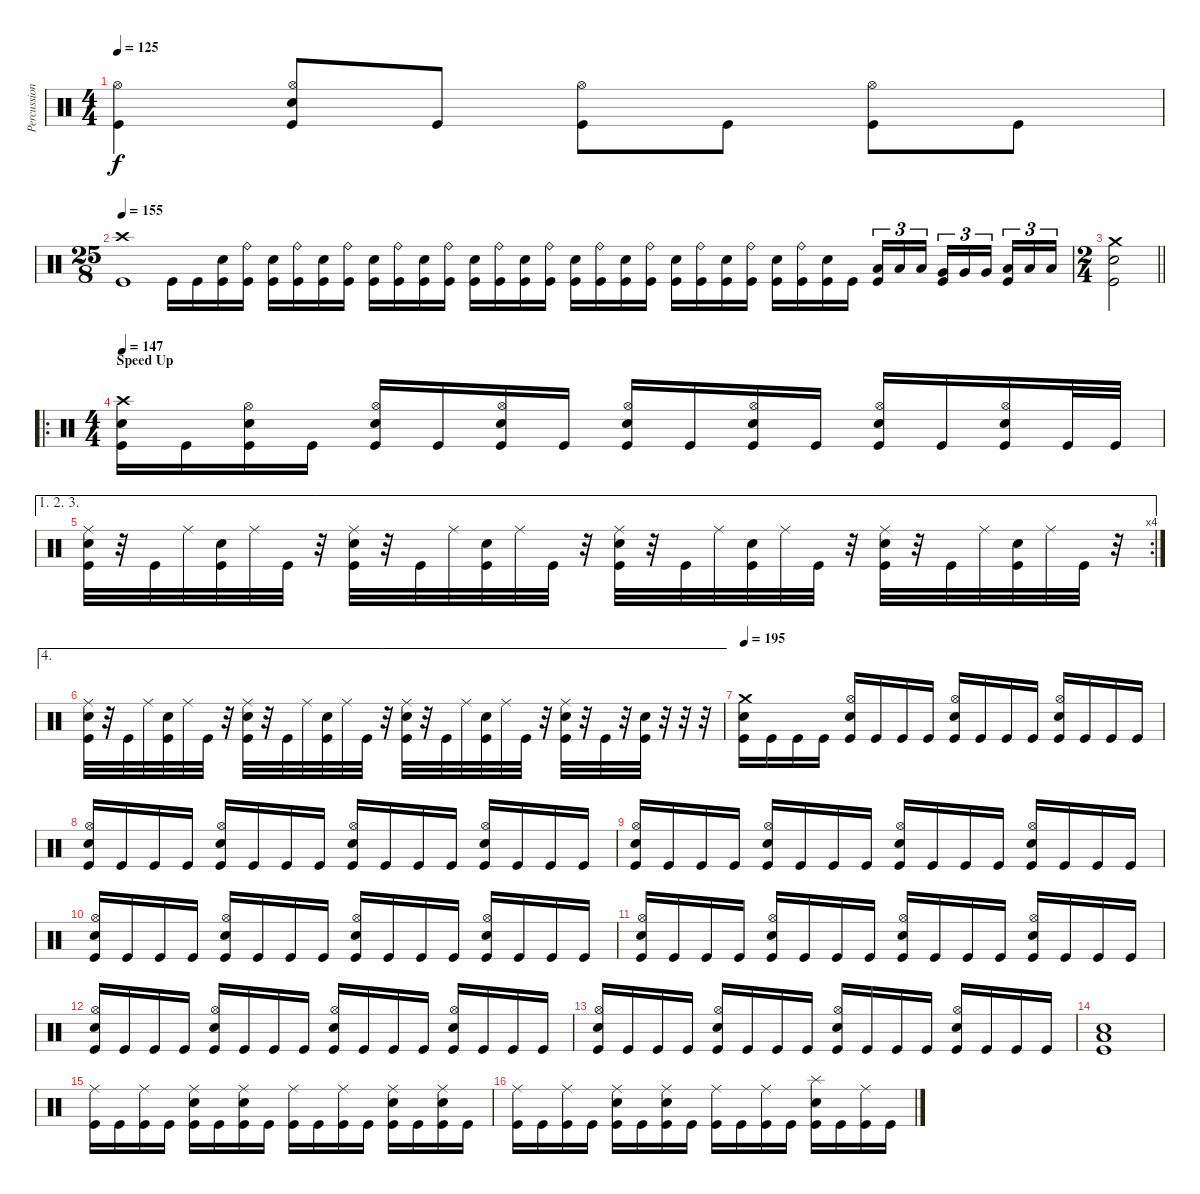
\track ("Percussion" "Percussion") {instrument percussion}
\staff {score}
\articulation defaults
\ts (4 4)
\tempo 125
\clef neutral
\ks c
("Kick (hit)" "Hi-Hat (open)").4{dy f} ("Kick (hit)" "Snare (hit) 2" "Hi-Hat (open)").8 "Kick (hit)".8 ("Kick (hit)" "Hi-Hat (open)").8 "Kick (hit)".8 ("Kick (hit)" "Hi-Hat (open)").8 "Kick (hit)".8 |
\ts (25 8)
\tempo 155
("Kick (hit)" "Crash high (hit)").1 "Kick (hit)".16 "Kick (hit)".16 ("Kick (hit)" "Snare (hit) 2").16 ("Kick (hit)" "Ride (bell)").16 ("Kick (hit)" "Snare (hit) 2").16 ("Kick (hit)" "Ride (bell)").16 ("Kick (hit)" "Snare (hit) 2").16 ("Kick (hit)" "Ride (bell)").16 ("Kick (hit)" "Snare (hit) 2").16 ("Kick (hit)" "Ride (bell)").16 ("Kick (hit)" "Snare (hit) 2").16 ("Kick (hit)" "Ride (bell)").16 ("Kick (hit)" "Snare (hit) 2").16 ("Kick (hit)" "Ride (bell)").16 ("Kick (hit)" "Snare (hit) 2").16 ("Kick (hit)" "Ride (bell)").16 ("Kick (hit)" "Snare (hit) 2").16 ("Kick (hit)" "Ride (bell)").16 ("Kick (hit)" "Snare (hit) 2").16 ("Kick (hit)" "Ride (bell)").16 ("Kick (hit)" "Snare (hit) 2").16 ("Kick (hit)" "Ride (bell)").16 ("Kick (hit)" "Snare (hit) 2").16 ("Kick (hit)" "Ride (bell)").16 ("Kick (hit)" "Snare (hit) 2").16 ("Kick (hit)" "Ride (bell)").16 ("Kick (hit)" "Snare (hit) 2").16 "Kick (hit)".16 ("Kick (hit)" "Low Tom (hit)").16{tu (3 2)} "Low Tom (hit)".16{tu (3 2)} "Low Tom (hit)".16{tu (3 2)} ("Kick (hit)" "Very Low Tom (hit)").16{tu (3 2)} "Very Low Tom (hit)".16{tu (3 2)} "Very Low Tom (hit)".16{tu (3 2)} ("Kick (hit)" "Low Floor Tom (hit)").16{tu (3 2)} "Low Floor Tom (hit)".16{tu (3 2)} "Low Floor Tom (hit)".16{tu (3 2)} |
\ts (2 4)
\barLineRight lightlight
("Kick (hit)" "Snare (hit) 2" "Crash medium (hit)").2 |
\ro
\ts (4 4)
\section ("" "Speed Up")
\tempo 147
("Kick (hit)" "Snare (hit) 2" "Crash high (hit)").16 "Kick (hit)".16 ("Kick (hit)" "Snare (hit) 2" "Hi-Hat (open)").16 "Kick (hit)".16 ("Kick (hit)" "Snare (hit) 2" "Hi-Hat (open)").16 "Kick (hit)".16 ("Kick (hit)" "Snare (hit) 2" "Hi-Hat (open)").16 "Kick (hit)".16 ("Kick (hit)" "Snare (hit) 2" "Hi-Hat (open)").16 "Kick (hit)".16 ("Kick (hit)" "Snare (hit) 2" "Hi-Hat (open)").16 "Kick (hit)".16 ("Kick (hit)" "Snare (hit) 2" "Hi-Hat (open)").16 "Kick (hit)".16 ("Kick (hit)" "Snare (hit) 2" "Hi-Hat (open)").16 "Kick (hit)".32 "Kick (hit)".32 |
\ae (1 2 3)
\rc 4
("Kick (hit)" "Snare (hit) 2" "Ride (middle)").32 r.32 "Kick (hit)".32 "Ride (middle)".32 ("Kick (hit)" "Snare (hit) 2").32 "Ride (middle)".32 "Kick (hit)".32 r.32 ("Kick (hit)" "Snare (hit) 2" "Ride (middle)").32 r.32 "Kick (hit)".32 "Ride (middle)".32 ("Kick (hit)" "Snare (hit) 2").32 "Ride (middle)".32 "Kick (hit)".32 r.32 ("Kick (hit)" "Snare (hit) 2" "Ride (middle)").32 r.32 "Kick (hit)".32 "Ride (middle)".32 ("Kick (hit)" "Snare (hit) 2").32 "Ride (middle)".32 "Kick (hit)".32 r.32 ("Kick (hit)" "Snare (hit) 2" "Ride (middle)").32 r.32 "Kick (hit)".32 "Ride (middle)".32 ("Kick (hit)" "Snare (hit) 2").32 "Ride (middle)".32 "Kick (hit)".32 r.32 |
\ae 4
("Kick (hit)" "Snare (hit) 2" "Ride (middle)").32 r.32 "Kick (hit)".32 "Ride (middle)".32 ("Kick (hit)" "Snare (hit) 2").32 "Ride (middle)".32 "Kick (hit)".32 r.32 ("Kick (hit)" "Snare (hit) 2" "Ride (middle)").32 r.32 "Kick (hit)".32 "Ride (middle)".32 ("Kick (hit)" "Snare (hit) 2").32 "Ride (middle)".32 "Kick (hit)".32 r.32 ("Kick (hit)" "Snare (hit) 2" "Ride (middle)").32 r.32 "Kick (hit)".32 "Ride (middle)".32 ("Kick (hit)" "Snare (hit) 2").32 "Ride (middle)".32 "Kick (hit)".32 r.32 ("Kick (hit)" "Snare (hit) 2" "Ride (middle)").32 r.32 "Kick (hit)".32 r.32 ("Kick (hit)" "Snare (hit) 2").32 r.32 r.32 r.32 |
\tempo 195
("Kick (hit)" "Snare (hit) 2" "Crash medium (hit)").16 "Kick (hit)".16 "Kick (hit)".16 "Kick (hit)".16 ("Kick (hit)" "Snare (hit) 2" "Hi-Hat (open)").16 "Kick (hit)".16 "Kick (hit)".16 "Kick (hit)".16 ("Kick (hit)" "Snare (hit) 2" "Hi-Hat (open)").16 "Kick (hit)".16 "Kick (hit)".16 "Kick (hit)".16 ("Kick (hit)" "Snare (hit) 2" "Hi-Hat (open)").16 "Kick (hit)".16 "Kick (hit)".16 "Kick (hit)".16 |
("Kick (hit)" "Snare (hit) 2" "Hi-Hat (open)").16 "Kick (hit)".16 "Kick (hit)".16 "Kick (hit)".16 ("Kick (hit)" "Snare (hit) 2" "Hi-Hat (open)").16 "Kick (hit)".16 "Kick (hit)".16 "Kick (hit)".16 ("Kick (hit)" "Snare (hit) 2" "Hi-Hat (open)").16 "Kick (hit)".16 "Kick (hit)".16 "Kick (hit)".16 ("Kick (hit)" "Snare (hit) 2" "Hi-Hat (open)").16 "Kick (hit)".16 "Kick (hit)".16 "Kick (hit)".16 |
("Kick (hit)" "Snare (hit) 2" "Hi-Hat (open)").16 "Kick (hit)".16 "Kick (hit)".16 "Kick (hit)".16 ("Kick (hit)" "Snare (hit) 2" "Hi-Hat (open)").16 "Kick (hit)".16 "Kick (hit)".16 "Kick (hit)".16 ("Kick (hit)" "Snare (hit) 2" "Hi-Hat (open)").16 "Kick (hit)".16 "Kick (hit)".16 "Kick (hit)".16 ("Kick (hit)" "Snare (hit) 2" "Hi-Hat (open)").16 "Kick (hit)".16 "Kick (hit)".16 "Kick (hit)".16 |
("Kick (hit)" "Snare (hit) 2" "Hi-Hat (open)").16 "Kick (hit)".16 "Kick (hit)".16 "Kick (hit)".16 ("Kick (hit)" "Snare (hit) 2" "Hi-Hat (open)").16 "Kick (hit)".16 "Kick (hit)".16 "Kick (hit)".16 ("Kick (hit)" "Snare (hit) 2" "Hi-Hat (open)").16 "Kick (hit)".16 "Kick (hit)".16 "Kick (hit)".16 ("Kick (hit)" "Snare (hit) 2" "Hi-Hat (open)").16 "Kick (hit)".16 "Kick (hit)".16 "Kick (hit)".16 |
("Kick (hit)" "Snare (hit) 2" "Hi-Hat (open)").16 "Kick (hit)".16 "Kick (hit)".16 "Kick (hit)".16 ("Kick (hit)" "Snare (hit) 2" "Hi-Hat (open)").16 "Kick (hit)".16 "Kick (hit)".16 "Kick (hit)".16 ("Kick (hit)" "Snare (hit) 2" "Hi-Hat (open)").16 "Kick (hit)".16 "Kick (hit)".16 "Kick (hit)".16 ("Kick (hit)" "Snare (hit) 2" "Hi-Hat (open)").16 "Kick (hit)".16 "Kick (hit)".16 "Kick (hit)".16 |
("Kick (hit)" "Snare (hit) 2" "Hi-Hat (open)").16 "Kick (hit)".16 "Kick (hit)".16 "Kick (hit)".16 ("Kick (hit)" "Snare (hit) 2" "Hi-Hat (open)").16 "Kick (hit)".16 "Kick (hit)".16 "Kick (hit)".16 ("Kick (hit)" "Snare (hit) 2" "Hi-Hat (open)").16 "Kick (hit)".16 "Kick (hit)".16 "Kick (hit)".16 ("Kick (hit)" "Snare (hit) 2" "Hi-Hat (open)").16 "Kick (hit)".16 "Kick (hit)".16 "Kick (hit)".16 |
("Kick (hit)" "Snare (hit) 2" "Hi-Hat (open)").16 "Kick (hit)".16 "Kick (hit)".16 "Kick (hit)".16 ("Kick (hit)" "Snare (hit) 2" "Hi-Hat (open)").16 "Kick (hit)".16 "Kick (hit)".16 "Kick (hit)".16 ("Kick (hit)" "Snare (hit) 2" "Hi-Hat (open)").16 "Kick (hit)".16 "Kick (hit)".16 "Kick (hit)".16 ("Kick (hit)" "Snare (hit) 2" "Hi-Hat (open)").16 "Kick (hit)".16 "Kick (hit)".16 "Kick (hit)".16 |
("Kick (hit)" "Snare (hit) 2" "Low Tom (hit)").1 |
("Kick (hit)" "Ride (middle)").16 "Kick (hit)".16 ("Kick (hit)" "Ride (middle)").16 "Kick (hit)".16 ("Kick (hit)" "Ride (middle)" "Snare (hit) 2").16 "Kick (hit)".16 ("Kick (hit)" "Ride (middle)" "Snare (hit) 2").16 "Kick (hit)".16 ("Kick (hit)" "Ride (middle)").16 "Kick (hit)".16 ("Kick (hit)" "Ride (middle)").16 "Kick (hit)".16 ("Kick (hit)" "Ride (middle)" "Snare (hit) 2").16 "Kick (hit)".16 ("Kick (hit)" "Ride (middle)" "Snare (hit) 2").16 "Kick (hit)".16 |
("Kick (hit)" "Ride (middle)").16 "Kick (hit)".16 ("Kick (hit)" "Ride (middle)").16 "Kick (hit)".16 ("Kick (hit)" "Ride (middle)" "Snare (hit) 2").16 "Kick (hit)".16 ("Kick (hit)" "Ride (middle)" "Snare (hit) 2").16 "Kick (hit)".16 ("Kick (hit)" "Ride (middle)").16 "Kick (hit)".16 ("Kick (hit)" "Ride (middle)").16 "Kick (hit)".16 ("Kick (hit)" "Splash (hit)" "Snare (hit) 2").16 "Kick (hit)".16 ("Kick (hit)" "Ride (middle)").16 "Kick (hit)".16
